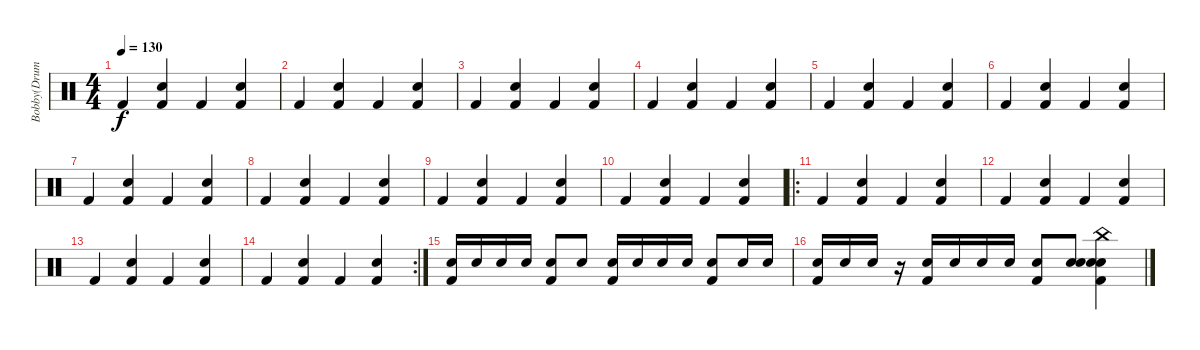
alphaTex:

\track ("Bobby(DrumSynth)" "Bobby(Drum") {instrument percussion}
\staff {score}
\articulation defaults
\ts (4 4)
\tempo 130
\clef neutral
\ks c "Kick (hit) 2".4{dy f}
("Kick (hit) 2" "Electric Snare (hit)").4 "Kick (hit) 2".4 ("Kick (hit) 2" "Electric Snare (hit)").4 |
"Kick (hit) 2".4 ("Kick (hit) 2" "Electric Snare (hit)").4 "Kick (hit) 2".4 ("Kick (hit) 2" "Electric Snare (hit)").4 |
"Kick (hit) 2".4 ("Kick (hit) 2" "Electric Snare (hit)").4 "Kick (hit) 2".4 ("Kick (hit) 2" "Electric Snare (hit)").4 |
"Kick (hit) 2".4 ("Kick (hit) 2" "Electric Snare (hit)").4 "Kick (hit) 2".4 ("Kick (hit) 2" "Electric Snare (hit)").4 |
"Kick (hit) 2".4 ("Kick (hit) 2" "Electric Snare (hit)").4 "Kick (hit) 2".4 ("Kick (hit) 2" "Electric Snare (hit)").4 |
"Kick (hit) 2".4 ("Kick (hit) 2" "Electric Snare (hit)").4 "Kick (hit) 2".4 ("Kick (hit) 2" "Electric Snare (hit)").4 |
"Kick (hit) 2".4 ("Kick (hit) 2" "Electric Snare (hit)").4 "Kick (hit) 2".4 ("Kick (hit) 2" "Electric Snare (hit)").4 |
"Kick (hit) 2".4 ("Kick (hit) 2" "Electric Snare (hit)").4 "Kick (hit) 2".4 ("Kick (hit) 2" "Electric Snare (hit)").4 |
"Kick (hit) 2".4 ("Kick (hit) 2" "Electric Snare (hit)").4 "Kick (hit) 2".4 ("Kick (hit) 2" "Electric Snare (hit)").4 |
"Kick (hit) 2".4 ("Kick (hit) 2" "Electric Snare (hit)").4 "Kick (hit) 2".4 ("Kick (hit) 2" "Electric Snare (hit)").4 |
\ro "Kick (hit) 2".4
("Kick (hit) 2" "Electric Snare (hit)").4 "Kick (hit) 2".4 ("Kick (hit) 2" "Electric Snare (hit)").4 |
"Kick (hit) 2".4 ("Kick (hit) 2" "Electric Snare (hit)").4 "Kick (hit) 2".4 ("Kick (hit) 2" "Electric Snare (hit)").4 |
"Kick (hit) 2".4 ("Kick (hit) 2" "Electric Snare (hit)").4 "Kick (hit) 2".4 ("Kick (hit) 2" "Electric Snare (hit)").4 |
\rc 2 "Kick (hit) 2".4
("Kick (hit) 2" "Electric Snare (hit)").4 "Kick (hit) 2".4 ("Kick (hit) 2" "Electric Snare (hit)").4 |
("Kick (hit) 2" "Electric Snare (hit)").16 "Electric Snare (hit)".16 "Electric Snare (hit)".16 "Electric Snare (hit)".16 ("Kick (hit) 2" "Electric Snare (hit)").8 "Electric Snare (hit)".8 ("Kick (hit) 2" "Electric Snare (hit)").16 "Electric Snare (hit)".16 "Electric Snare (hit)".16 "Electric Snare (hit)".16 ("Kick (hit) 2" "Electric Snare (hit)").8 "Electric Snare (hit)".16 "Electric Snare (hit)".16 |
("Kick (hit) 2" "Electric Snare (hit)").16 "Electric Snare (hit)".16 "Electric Snare (hit)".16 r.16 ("Kick (hit) 2" "Electric Snare (hit)").16 "Electric Snare (hit)".16 "Electric Snare (hit)".16 "Electric Snare (hit)".16 ("Kick (hit) 2" "Electric Snare (hit)").8 ("Snare (hit) 2" "Electric Snare (hit)").8 ("Kick (hit) 2" "Snare (hit) 2" "China (hit)" "Electric Snare (hit)").4
